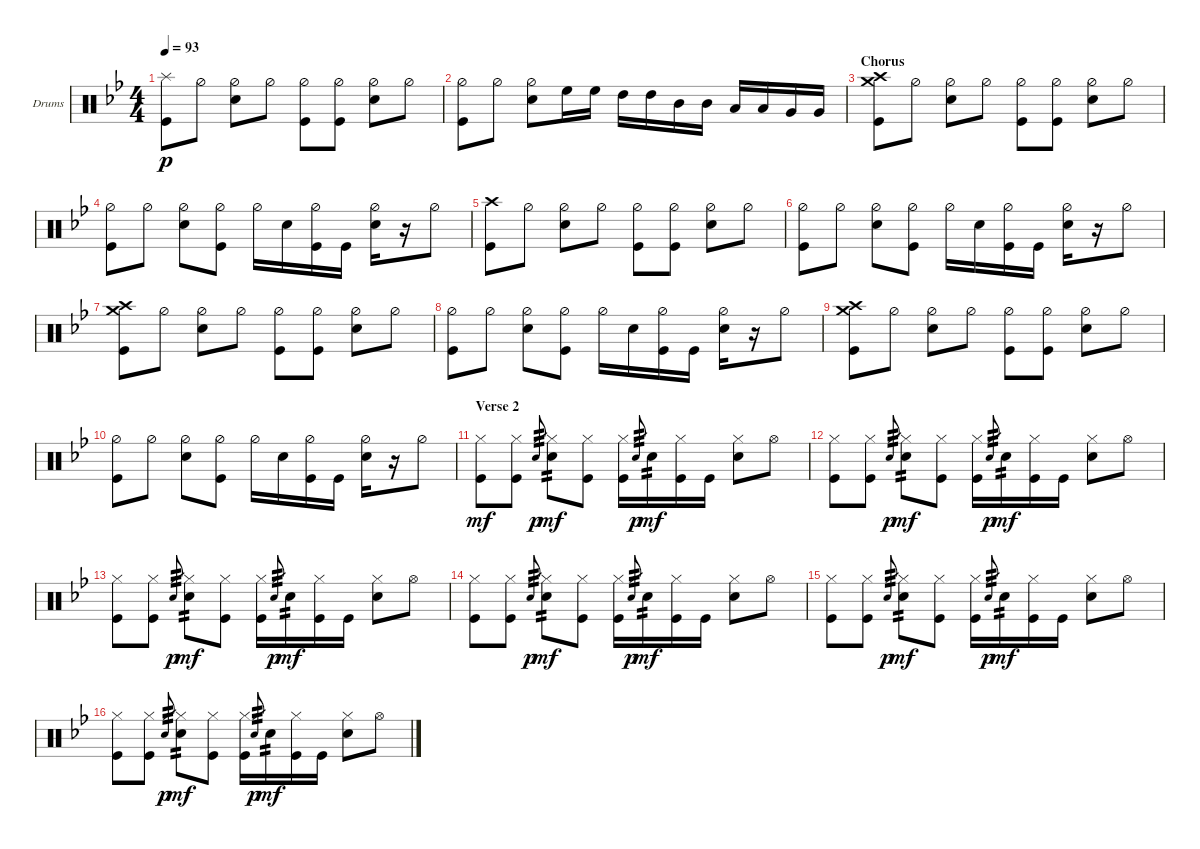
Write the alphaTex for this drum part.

\defaultSystemsLayout 4
\bracketExtendMode groupsimilarinstruments
\firstSystemTrackNameOrientation horizontal
\otherSystemsTrackNameOrientation horizontal
\track ("Drumkit" "Drums") {instrument percussion}
\staff {score}
\articulation defaults
\ts (4 4)
\tempo 93
\clef neutral
\ks bb
("Kick (hit)" "Splash (hit)").8{dy p} "Hi-Hat (half)".8 ("Hi-Hat (half)" "Snare (hit) 2").8 "Hi-Hat (half)".8 ("Hi-Hat (half)" "Kick (hit)").8 ("Hi-Hat (half)" "Kick (hit)").8 ("Hi-Hat (half)" "Snare (hit) 2").8 "Hi-Hat (half)".8 |
("Kick (hit)" "Hi-Hat (half)").8 "Hi-Hat (half)".8 ("Hi-Hat (half)" "Snare (hit) 2").8 "High Floor Tom (hit)".16 "High Floor Tom (hit)".16 "High Tom (hit)".16 "High Tom (hit)".16 "Mid Tom (hit)".16 "Mid Tom (hit)".16 "Low Tom (hit)".16 "Low Tom (hit)".16 "Very Low Tom (hit)".16 "Very Low Tom (hit)".16 |
\section ("" "Chorus")
("Crash high (hit)" "Kick (hit)" "Crash medium (hit)").8 "Hi-Hat (half)".8 ("Hi-Hat (half)" "Snare (hit) 2").8 "Hi-Hat (half)".8 ("Hi-Hat (half)" "Kick (hit)").8 ("Hi-Hat (half)" "Kick (hit)").8 ("Hi-Hat (half)" "Snare (hit) 2").8 "Hi-Hat (half)".8 |
("Kick (hit)" "Hi-Hat (half)").8 "Hi-Hat (half)".8 ("Hi-Hat (half)" "Snare (hit) 2").8 ("Hi-Hat (half)" "Kick (hit)").8 "Hi-Hat (half)".16 "Snare (hit) 2".16 ("Kick (hit)" "Hi-Hat (half)").16 "Kick (hit)".16 ("Hi-Hat (half)" "Snare (hit) 2").16 r.16 "Hi-Hat (half)".8 |
("Crash high (hit)" "Kick (hit)").8 "Hi-Hat (half)".8 ("Hi-Hat (half)" "Snare (hit) 2").8 "Hi-Hat (half)".8 ("Hi-Hat (half)" "Kick (hit)").8 ("Hi-Hat (half)" "Kick (hit)").8 ("Hi-Hat (half)" "Snare (hit) 2").8 "Hi-Hat (half)".8 |
("Kick (hit)" "Hi-Hat (half)").8 "Hi-Hat (half)".8 ("Hi-Hat (half)" "Snare (hit) 2").8 ("Hi-Hat (half)" "Kick (hit)").8 "Hi-Hat (half)".16 "Snare (hit) 2".16 ("Kick (hit)" "Hi-Hat (half)").16 "Kick (hit)".16 ("Hi-Hat (half)" "Snare (hit) 2").16 r.16 "Hi-Hat (half)".8 |
("Crash high (hit)" "Kick (hit)" "Crash medium (hit)").8 "Hi-Hat (half)".8 ("Hi-Hat (half)" "Snare (hit) 2").8 "Hi-Hat (half)".8 ("Hi-Hat (half)" "Kick (hit)").8 ("Hi-Hat (half)" "Kick (hit)").8 ("Hi-Hat (half)" "Snare (hit) 2").8 "Hi-Hat (half)".8 |
("Kick (hit)" "Hi-Hat (half)").8 "Hi-Hat (half)".8 ("Hi-Hat (half)" "Snare (hit) 2").8 ("Hi-Hat (half)" "Kick (hit)").8 "Hi-Hat (half)".16 "Snare (hit) 2".16 ("Kick (hit)" "Hi-Hat (half)").16 "Kick (hit)".16 ("Hi-Hat (half)" "Snare (hit) 2").16 r.16 "Hi-Hat (half)".8 |
("Crash high (hit)" "Kick (hit)" "Crash medium (hit)").8 "Hi-Hat (half)".8 ("Hi-Hat (half)" "Snare (hit) 2").8 "Hi-Hat (half)".8 ("Hi-Hat (half)" "Kick (hit)").8 ("Hi-Hat (half)" "Kick (hit)").8 ("Hi-Hat (half)" "Snare (hit) 2").8 "Hi-Hat (half)".8 |
("Kick (hit)" "Hi-Hat (half)").8 "Hi-Hat (half)".8 ("Hi-Hat (half)" "Snare (hit) 2").8 ("Hi-Hat (half)" "Kick (hit)").8 "Hi-Hat (half)".16 "Snare (hit) 2".16 ("Kick (hit)" "Hi-Hat (half)").16 "Kick (hit)".16 ("Hi-Hat (half)" "Snare (hit) 2").16 r.16 "Hi-Hat (half)".8 |
\section ("" "Verse 2")
("Kick (hit)" "Hi-Hat (closed)").8{dy mf} ("Kick (hit)" "Hi-Hat (closed)").8 "Snare (hit) 2".8{gr tp 3 dy p} ("Snare (hit) 2" "Hi-Hat (closed)").8{tp 2 dy mf} ("Hi-Hat (closed)" "Kick (hit)").8 ("Kick (hit)" "Hi-Hat (closed)").16 "Snare (hit) 2".8{gr tp 3 dy p} "Snare (hit) 2".16{tp 2 dy mf} ("Kick (hit)" "Hi-Hat (closed)").16 "Kick (hit)".16 ("Snare (hit) 2" "Hi-Hat (closed)").8 "Hi-Hat (open)".8 |
("Kick (hit)" "Hi-Hat (closed)").8 ("Kick (hit)" "Hi-Hat (closed)").8 "Snare (hit) 2".8{gr tp 3 dy p} ("Snare (hit) 2" "Hi-Hat (closed)").8{tp 2 dy mf} ("Hi-Hat (closed)" "Kick (hit)").8 ("Kick (hit)" "Hi-Hat (closed)").16 "Snare (hit) 2".8{gr tp 3 dy p} "Snare (hit) 2".16{tp 2 dy mf} ("Kick (hit)" "Hi-Hat (closed)").16 "Kick (hit)".16 ("Snare (hit) 2" "Hi-Hat (closed)").8 "Hi-Hat (open)".8 |
("Kick (hit)" "Hi-Hat (closed)").8 ("Kick (hit)" "Hi-Hat (closed)").8 "Snare (hit) 2".8{gr tp 3 dy p} ("Snare (hit) 2" "Hi-Hat (closed)").8{tp 2 dy mf} ("Hi-Hat (closed)" "Kick (hit)").8 ("Kick (hit)" "Hi-Hat (closed)").16 "Snare (hit) 2".8{gr tp 3 dy p} "Snare (hit) 2".16{tp 2 dy mf} ("Kick (hit)" "Hi-Hat (closed)").16 "Kick (hit)".16 ("Snare (hit) 2" "Hi-Hat (closed)").8 "Hi-Hat (open)".8 |
("Kick (hit)" "Hi-Hat (closed)").8 ("Kick (hit)" "Hi-Hat (closed)").8 "Snare (hit) 2".8{gr tp 3 dy p} ("Snare (hit) 2" "Hi-Hat (closed)").8{tp 2 dy mf} ("Hi-Hat (closed)" "Kick (hit)").8 ("Kick (hit)" "Hi-Hat (closed)").16 "Snare (hit) 2".8{gr tp 3 dy p} "Snare (hit) 2".16{tp 2 dy mf} ("Kick (hit)" "Hi-Hat (closed)").16 "Kick (hit)".16 ("Snare (hit) 2" "Hi-Hat (closed)").8 "Hi-Hat (open)".8 |
("Kick (hit)" "Hi-Hat (closed)").8 ("Kick (hit)" "Hi-Hat (closed)").8 "Snare (hit) 2".8{gr tp 3 dy p} ("Snare (hit) 2" "Hi-Hat (closed)").8{tp 2 dy mf} ("Hi-Hat (closed)" "Kick (hit)").8 ("Kick (hit)" "Hi-Hat (closed)").16 "Snare (hit) 2".8{gr tp 3 dy p} "Snare (hit) 2".16{tp 2 dy mf} ("Kick (hit)" "Hi-Hat (closed)").16 "Kick (hit)".16 ("Snare (hit) 2" "Hi-Hat (closed)").8 "Hi-Hat (open)".8 |
("Kick (hit)" "Hi-Hat (closed)").8 ("Kick (hit)" "Hi-Hat (closed)").8 "Snare (hit) 2".8{gr tp 3 dy p} ("Snare (hit) 2" "Hi-Hat (closed)").8{tp 2 dy mf} ("Hi-Hat (closed)" "Kick (hit)").8 ("Kick (hit)" "Hi-Hat (closed)").16 "Snare (hit) 2".8{gr tp 3 dy p} "Snare (hit) 2".16{tp 2 dy mf} ("Kick (hit)" "Hi-Hat (closed)").16 "Kick (hit)".16 ("Snare (hit) 2" "Hi-Hat (closed)").8 "Hi-Hat (open)".8
